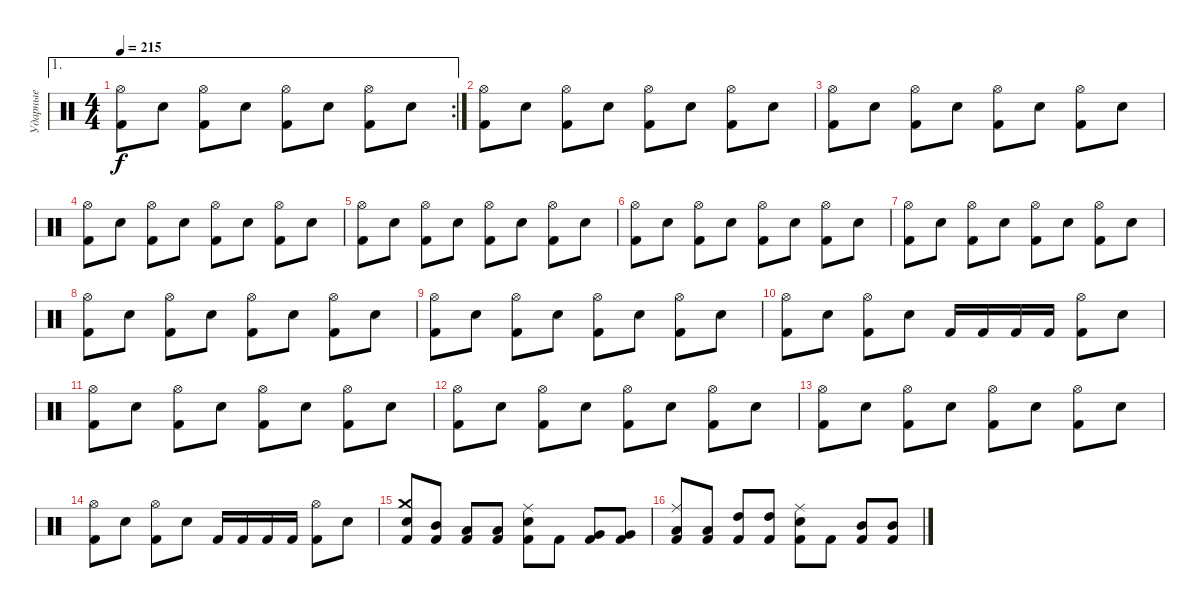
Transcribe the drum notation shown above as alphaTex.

\track ("Ударные" "Ударные") {instrument percussion}
\staff {score}
\articulation defaults
\ae 1
\rc 2
\ts (4 4)
\tempo 215
\clef neutral
\ks c
("Kick (hit) 2" "Hi-Hat (open)").8{dy f} "Electric Snare (hit)".8 ("Kick (hit) 2" "Hi-Hat (open)").8 "Electric Snare (hit)".8 ("Kick (hit) 2" "Hi-Hat (open)").8 "Electric Snare (hit)".8 ("Kick (hit) 2" "Hi-Hat (open)").8 "Electric Snare (hit)".8 |
("Hi-Hat (open)" "Kick (hit) 2").8 "Electric Snare (hit)".8 ("Hi-Hat (open)" "Kick (hit) 2").8 "Electric Snare (hit)".8 ("Hi-Hat (open)" "Kick (hit) 2").8 "Electric Snare (hit)".8 ("Hi-Hat (open)" "Kick (hit) 2").8 "Electric Snare (hit)".8 |
("Hi-Hat (open)" "Kick (hit) 2").8 "Electric Snare (hit)".8 ("Hi-Hat (open)" "Kick (hit) 2").8 "Electric Snare (hit)".8 ("Hi-Hat (open)" "Kick (hit) 2").8 "Electric Snare (hit)".8 ("Hi-Hat (open)" "Kick (hit) 2").8 "Electric Snare (hit)".8 |
("Hi-Hat (open)" "Kick (hit) 2").8 "Electric Snare (hit)".8 ("Hi-Hat (open)" "Kick (hit) 2").8 "Electric Snare (hit)".8 ("Hi-Hat (open)" "Kick (hit) 2").8 "Electric Snare (hit)".8 ("Hi-Hat (open)" "Kick (hit) 2").8 "Electric Snare (hit)".8 |
("Hi-Hat (open)" "Kick (hit) 2").8 "Electric Snare (hit)".8 ("Hi-Hat (open)" "Kick (hit) 2").8 "Electric Snare (hit)".8 ("Hi-Hat (open)" "Kick (hit) 2").8 "Electric Snare (hit)".8 ("Hi-Hat (open)" "Kick (hit) 2").8 "Electric Snare (hit)".8 |
("Hi-Hat (open)" "Kick (hit) 2").8 "Electric Snare (hit)".8 ("Hi-Hat (open)" "Kick (hit) 2").8 "Electric Snare (hit)".8 ("Hi-Hat (open)" "Kick (hit) 2").8 "Electric Snare (hit)".8 ("Hi-Hat (open)" "Kick (hit) 2").8 "Electric Snare (hit)".8 |
("Hi-Hat (open)" "Kick (hit) 2").8 "Electric Snare (hit)".8 ("Hi-Hat (open)" "Kick (hit) 2").8 "Electric Snare (hit)".8 ("Hi-Hat (open)" "Kick (hit) 2").8 "Electric Snare (hit)".8 ("Hi-Hat (open)" "Kick (hit) 2").8 "Electric Snare (hit)".8 |
("Hi-Hat (open)" "Kick (hit) 2").8 "Electric Snare (hit)".8 ("Hi-Hat (open)" "Kick (hit) 2").8 "Electric Snare (hit)".8 ("Hi-Hat (open)" "Kick (hit) 2").8 "Electric Snare (hit)".8 ("Hi-Hat (open)" "Kick (hit) 2").8 "Electric Snare (hit)".8 |
("Hi-Hat (open)" "Kick (hit) 2").8 "Electric Snare (hit)".8 ("Hi-Hat (open)" "Kick (hit) 2").8 "Electric Snare (hit)".8 ("Hi-Hat (open)" "Kick (hit) 2").8 "Electric Snare (hit)".8 ("Hi-Hat (open)" "Kick (hit) 2").8 "Electric Snare (hit)".8 |
("Hi-Hat (open)" "Kick (hit) 2").8 "Electric Snare (hit)".8 ("Hi-Hat (open)" "Kick (hit) 2").8 "Electric Snare (hit)".8 "Kick (hit) 2".16 "Kick (hit) 2".16 "Kick (hit) 2".16 "Kick (hit) 2".16 ("Hi-Hat (open)" "Kick (hit) 2").8 "Electric Snare (hit)".8 |
("Hi-Hat (open)" "Kick (hit) 2").8 "Electric Snare (hit)".8 ("Hi-Hat (open)" "Kick (hit) 2").8 "Electric Snare (hit)".8 ("Hi-Hat (open)" "Kick (hit) 2").8 "Electric Snare (hit)".8 ("Hi-Hat (open)" "Kick (hit) 2").8 "Electric Snare (hit)".8 |
("Hi-Hat (open)" "Kick (hit) 2").8 "Electric Snare (hit)".8 ("Hi-Hat (open)" "Kick (hit) 2").8 "Electric Snare (hit)".8 ("Hi-Hat (open)" "Kick (hit) 2").8 "Electric Snare (hit)".8 ("Hi-Hat (open)" "Kick (hit) 2").8 "Electric Snare (hit)".8 |
("Hi-Hat (open)" "Kick (hit) 2").8 "Electric Snare (hit)".8 ("Hi-Hat (open)" "Kick (hit) 2").8 "Electric Snare (hit)".8 ("Hi-Hat (open)" "Kick (hit) 2").8 "Electric Snare (hit)".8 ("Hi-Hat (open)" "Kick (hit) 2").8 "Electric Snare (hit)".8 |
("Hi-Hat (open)" "Kick (hit) 2").8 "Electric Snare (hit)".8 ("Hi-Hat (open)" "Kick (hit) 2").8 "Electric Snare (hit)".8 "Kick (hit) 2".16 "Kick (hit) 2".16 "Kick (hit) 2".16 "Kick (hit) 2".16 ("Hi-Hat (open)" "Kick (hit) 2").8 "Electric Snare (hit)".8 |
("Crash medium (hit)" "Snare (hit) 2" "Kick (hit) 2").8 ("Mid Tom (hit)" "Kick (hit) 2").8 ("Low Tom (hit)" "Kick (hit) 2").8 ("Low Tom (hit)" "Kick (hit) 2").8 ("Ride (middle)" "Snare (hit) 2" "Kick (hit) 2").8 "Kick (hit) 2".8 ("Very Low Tom (hit)" "Kick (hit) 2").8 ("Very Low Tom (hit)" "Kick (hit) 2").8 |
("Ride (middle)" "Low Floor Tom (hit)" "Kick (hit) 2").8 ("Low Floor Tom (hit)" "Kick (hit) 2").8 ("High Tom (hit)" "Kick (hit) 2").8 ("High Tom (hit)" "Kick (hit) 2").8 ("Ride (middle)" "Snare (hit) 2" "Kick (hit) 2").8 "Kick (hit) 2".8 ("Mid Tom (hit)" "Kick (hit) 2").8 ("Mid Tom (hit)" "Kick (hit) 2").8
